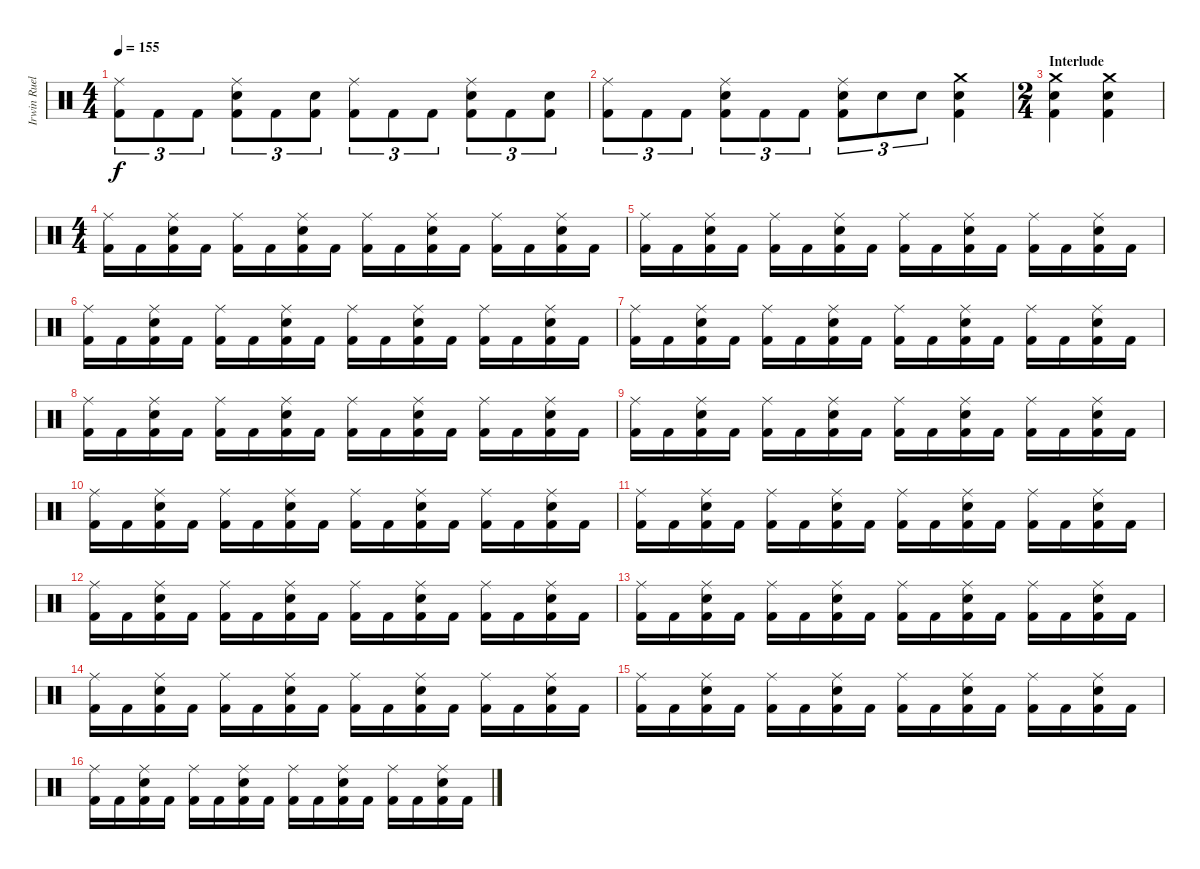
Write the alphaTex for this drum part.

\track ("Irwin Ruelas" "Irwin Ruel") {instrument percussion}
\staff {score}
\articulation defaults
\ts (4 4)
\tempo 155
\clef neutral
\ks c
("Ride (middle)" "Kick (hit) 2").8{tu (3 2) dy f} "Kick (hit) 2".8{tu (3 2)} "Kick (hit) 2".8{tu (3 2)} ("Ride (middle)" "Electric Snare (hit)" "Kick (hit) 2").8{tu (3 2)} "Kick (hit) 2".8{tu (3 2)} ("Electric Snare (hit)" "Kick (hit) 2").8{tu (3 2)} ("Ride (middle)" "Kick (hit) 2").8{tu (3 2)} "Kick (hit) 2".8{tu (3 2)} "Kick (hit) 2".8{tu (3 2)} ("Ride (middle)" "Electric Snare (hit)" "Kick (hit) 2").8{tu (3 2)} "Kick (hit) 2".8{tu (3 2)} ("Electric Snare (hit)" "Kick (hit) 2").8{tu (3 2)} |
("Ride (middle)" "Kick (hit) 2").8{tu (3 2)} "Kick (hit) 2".8{tu (3 2)} "Kick (hit) 2".8{tu (3 2)} ("Ride (middle)" "Electric Snare (hit)" "Kick (hit) 2").8{tu (3 2)} "Kick (hit) 2".8{tu (3 2)} "Kick (hit) 2".8{tu (3 2)} ("Ride (middle)" "Electric Snare (hit)" "Kick (hit) 2").8{tu (3 2)} "Electric Snare (hit)".8{tu (3 2)} "Electric Snare (hit)".8{tu (3 2)} ("Crash medium (hit)" "Electric Snare (hit)" "Kick (hit) 2").4 |
\ts (2 4)
\section ("" "Interlude")
("Crash medium (hit)" "Electric Snare (hit)" "Kick (hit) 2").4 ("Crash medium (hit)" "Electric Snare (hit)" "Kick (hit) 2").4 |
\ts (4 4)
("Ride (middle)" "Kick (hit) 2").16 "Kick (hit) 2".16 ("Ride (middle)" "Electric Snare (hit)" "Kick (hit) 2").16 "Kick (hit) 2".16 ("Ride (middle)" "Kick (hit) 2").16 "Kick (hit) 2".16 ("Ride (middle)" "Electric Snare (hit)" "Kick (hit) 2").16 "Kick (hit) 2".16 ("Ride (middle)" "Kick (hit) 2").16 "Kick (hit) 2".16 ("Ride (middle)" "Electric Snare (hit)" "Kick (hit) 2").16 "Kick (hit) 2".16 ("Ride (middle)" "Kick (hit) 2").16 "Kick (hit) 2".16 ("Ride (middle)" "Electric Snare (hit)" "Kick (hit) 2").16 "Kick (hit) 2".16 |
("Ride (middle)" "Kick (hit) 2").16 "Kick (hit) 2".16 ("Ride (middle)" "Electric Snare (hit)" "Kick (hit) 2").16 "Kick (hit) 2".16 ("Ride (middle)" "Kick (hit) 2").16 "Kick (hit) 2".16 ("Ride (middle)" "Electric Snare (hit)" "Kick (hit) 2").16 "Kick (hit) 2".16 ("Ride (middle)" "Kick (hit) 2").16 "Kick (hit) 2".16 ("Ride (middle)" "Electric Snare (hit)" "Kick (hit) 2").16 "Kick (hit) 2".16 ("Ride (middle)" "Kick (hit) 2").16 "Kick (hit) 2".16 ("Ride (middle)" "Electric Snare (hit)" "Kick (hit) 2").16 "Kick (hit) 2".16 |
("Ride (middle)" "Kick (hit) 2").16 "Kick (hit) 2".16 ("Ride (middle)" "Electric Snare (hit)" "Kick (hit) 2").16 "Kick (hit) 2".16 ("Ride (middle)" "Kick (hit) 2").16 "Kick (hit) 2".16 ("Ride (middle)" "Electric Snare (hit)" "Kick (hit) 2").16 "Kick (hit) 2".16 ("Ride (middle)" "Kick (hit) 2").16 "Kick (hit) 2".16 ("Ride (middle)" "Electric Snare (hit)" "Kick (hit) 2").16 "Kick (hit) 2".16 ("Ride (middle)" "Kick (hit) 2").16 "Kick (hit) 2".16 ("Ride (middle)" "Electric Snare (hit)" "Kick (hit) 2").16 "Kick (hit) 2".16 |
("Ride (middle)" "Kick (hit) 2").16 "Kick (hit) 2".16 ("Ride (middle)" "Electric Snare (hit)" "Kick (hit) 2").16 "Kick (hit) 2".16 ("Ride (middle)" "Kick (hit) 2").16 "Kick (hit) 2".16 ("Ride (middle)" "Electric Snare (hit)" "Kick (hit) 2").16 "Kick (hit) 2".16 ("Ride (middle)" "Kick (hit) 2").16 "Kick (hit) 2".16 ("Ride (middle)" "Electric Snare (hit)" "Kick (hit) 2").16 "Kick (hit) 2".16 ("Ride (middle)" "Kick (hit) 2").16 "Kick (hit) 2".16 ("Ride (middle)" "Electric Snare (hit)" "Kick (hit) 2").16 "Kick (hit) 2".16 |
("Ride (middle)" "Kick (hit) 2").16 "Kick (hit) 2".16 ("Ride (middle)" "Electric Snare (hit)" "Kick (hit) 2").16 "Kick (hit) 2".16 ("Ride (middle)" "Kick (hit) 2").16 "Kick (hit) 2".16 ("Ride (middle)" "Electric Snare (hit)" "Kick (hit) 2").16 "Kick (hit) 2".16 ("Ride (middle)" "Kick (hit) 2").16 "Kick (hit) 2".16 ("Ride (middle)" "Electric Snare (hit)" "Kick (hit) 2").16 "Kick (hit) 2".16 ("Ride (middle)" "Kick (hit) 2").16 "Kick (hit) 2".16 ("Ride (middle)" "Electric Snare (hit)" "Kick (hit) 2").16 "Kick (hit) 2".16 |
("Ride (middle)" "Kick (hit) 2").16 "Kick (hit) 2".16 ("Ride (middle)" "Electric Snare (hit)" "Kick (hit) 2").16 "Kick (hit) 2".16 ("Ride (middle)" "Kick (hit) 2").16 "Kick (hit) 2".16 ("Ride (middle)" "Electric Snare (hit)" "Kick (hit) 2").16 "Kick (hit) 2".16 ("Ride (middle)" "Kick (hit) 2").16 "Kick (hit) 2".16 ("Ride (middle)" "Electric Snare (hit)" "Kick (hit) 2").16 "Kick (hit) 2".16 ("Ride (middle)" "Kick (hit) 2").16 "Kick (hit) 2".16 ("Ride (middle)" "Electric Snare (hit)" "Kick (hit) 2").16 "Kick (hit) 2".16 |
("Ride (middle)" "Kick (hit) 2").16 "Kick (hit) 2".16 ("Ride (middle)" "Electric Snare (hit)" "Kick (hit) 2").16 "Kick (hit) 2".16 ("Ride (middle)" "Kick (hit) 2").16 "Kick (hit) 2".16 ("Ride (middle)" "Electric Snare (hit)" "Kick (hit) 2").16 "Kick (hit) 2".16 ("Ride (middle)" "Kick (hit) 2").16 "Kick (hit) 2".16 ("Ride (middle)" "Electric Snare (hit)" "Kick (hit) 2").16 "Kick (hit) 2".16 ("Ride (middle)" "Kick (hit) 2").16 "Kick (hit) 2".16 ("Ride (middle)" "Electric Snare (hit)" "Kick (hit) 2").16 "Kick (hit) 2".16 |
("Ride (middle)" "Kick (hit) 2").16 "Kick (hit) 2".16 ("Ride (middle)" "Electric Snare (hit)" "Kick (hit) 2").16 "Kick (hit) 2".16 ("Ride (middle)" "Kick (hit) 2").16 "Kick (hit) 2".16 ("Ride (middle)" "Electric Snare (hit)" "Kick (hit) 2").16 "Kick (hit) 2".16 ("Ride (middle)" "Kick (hit) 2").16 "Kick (hit) 2".16 ("Ride (middle)" "Electric Snare (hit)" "Kick (hit) 2").16 "Kick (hit) 2".16 ("Ride (middle)" "Kick (hit) 2").16 "Kick (hit) 2".16 ("Ride (middle)" "Electric Snare (hit)" "Kick (hit) 2").16 "Kick (hit) 2".16 |
("Ride (middle)" "Kick (hit) 2").16 "Kick (hit) 2".16 ("Ride (middle)" "Electric Snare (hit)" "Kick (hit) 2").16 "Kick (hit) 2".16 ("Ride (middle)" "Kick (hit) 2").16 "Kick (hit) 2".16 ("Ride (middle)" "Electric Snare (hit)" "Kick (hit) 2").16 "Kick (hit) 2".16 ("Ride (middle)" "Kick (hit) 2").16 "Kick (hit) 2".16 ("Ride (middle)" "Electric Snare (hit)" "Kick (hit) 2").16 "Kick (hit) 2".16 ("Ride (middle)" "Kick (hit) 2").16 "Kick (hit) 2".16 ("Ride (middle)" "Electric Snare (hit)" "Kick (hit) 2").16 "Kick (hit) 2".16 |
("Ride (middle)" "Kick (hit) 2").16 "Kick (hit) 2".16 ("Ride (middle)" "Electric Snare (hit)" "Kick (hit) 2").16 "Kick (hit) 2".16 ("Ride (middle)" "Kick (hit) 2").16 "Kick (hit) 2".16 ("Ride (middle)" "Electric Snare (hit)" "Kick (hit) 2").16 "Kick (hit) 2".16 ("Ride (middle)" "Kick (hit) 2").16 "Kick (hit) 2".16 ("Ride (middle)" "Electric Snare (hit)" "Kick (hit) 2").16 "Kick (hit) 2".16 ("Ride (middle)" "Kick (hit) 2").16 "Kick (hit) 2".16 ("Ride (middle)" "Electric Snare (hit)" "Kick (hit) 2").16 "Kick (hit) 2".16 |
("Ride (middle)" "Kick (hit) 2").16 "Kick (hit) 2".16 ("Ride (middle)" "Electric Snare (hit)" "Kick (hit) 2").16 "Kick (hit) 2".16 ("Ride (middle)" "Kick (hit) 2").16 "Kick (hit) 2".16 ("Ride (middle)" "Electric Snare (hit)" "Kick (hit) 2").16 "Kick (hit) 2".16 ("Ride (middle)" "Kick (hit) 2").16 "Kick (hit) 2".16 ("Ride (middle)" "Electric Snare (hit)" "Kick (hit) 2").16 "Kick (hit) 2".16 ("Ride (middle)" "Kick (hit) 2").16 "Kick (hit) 2".16 ("Ride (middle)" "Electric Snare (hit)" "Kick (hit) 2").16 "Kick (hit) 2".16 |
("Ride (middle)" "Kick (hit) 2").16 "Kick (hit) 2".16 ("Ride (middle)" "Electric Snare (hit)" "Kick (hit) 2").16 "Kick (hit) 2".16 ("Ride (middle)" "Kick (hit) 2").16 "Kick (hit) 2".16 ("Ride (middle)" "Electric Snare (hit)" "Kick (hit) 2").16 "Kick (hit) 2".16 ("Ride (middle)" "Kick (hit) 2").16 "Kick (hit) 2".16 ("Ride (middle)" "Electric Snare (hit)" "Kick (hit) 2").16 "Kick (hit) 2".16 ("Ride (middle)" "Kick (hit) 2").16 "Kick (hit) 2".16 ("Ride (middle)" "Electric Snare (hit)" "Kick (hit) 2").16 "Kick (hit) 2".16 |
("Ride (middle)" "Kick (hit) 2").16 "Kick (hit) 2".16 ("Ride (middle)" "Electric Snare (hit)" "Kick (hit) 2").16 "Kick (hit) 2".16 ("Ride (middle)" "Kick (hit) 2").16 "Kick (hit) 2".16 ("Ride (middle)" "Electric Snare (hit)" "Kick (hit) 2").16 "Kick (hit) 2".16 ("Ride (middle)" "Kick (hit) 2").16 "Kick (hit) 2".16 ("Ride (middle)" "Electric Snare (hit)" "Kick (hit) 2").16 "Kick (hit) 2".16 ("Ride (middle)" "Kick (hit) 2").16 "Kick (hit) 2".16 ("Ride (middle)" "Electric Snare (hit)" "Kick (hit) 2").16 "Kick (hit) 2".16
